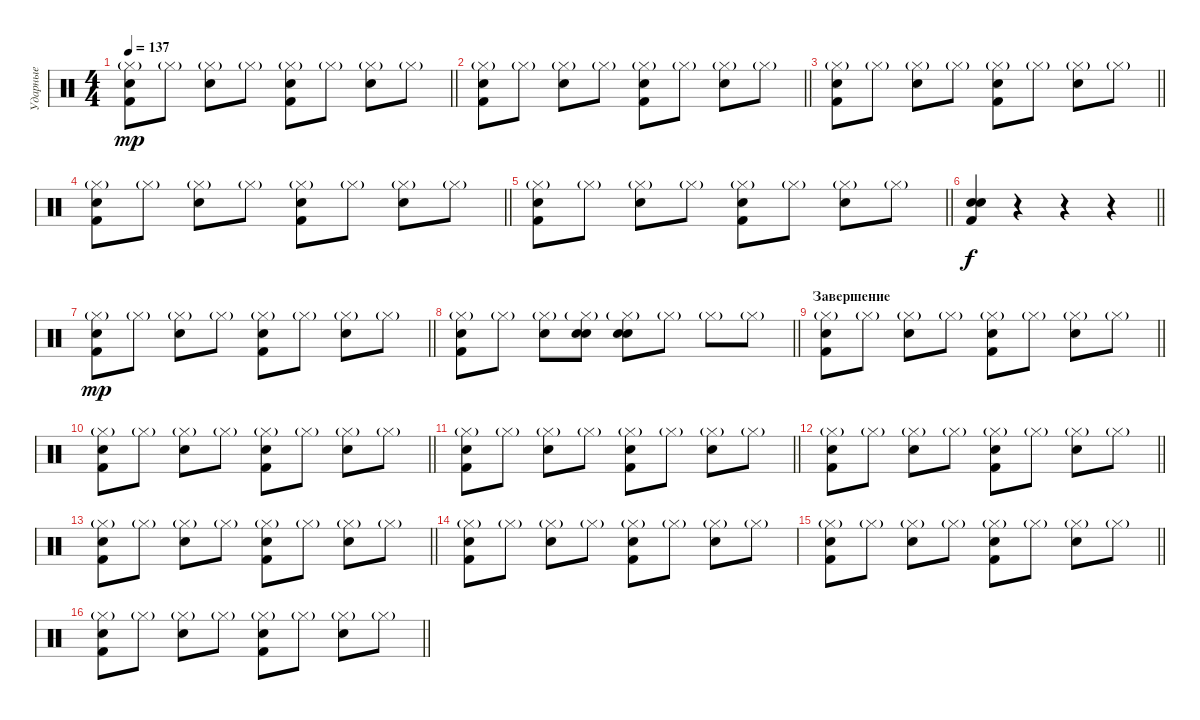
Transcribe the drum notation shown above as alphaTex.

\track ("Ударные" "Ударные") {instrument percussion}
\staff {score}
\articulation defaults
\ts (4 4)
\tempo 137
\clef neutral
\barLineRight lightlight
\ks c
("Kick (hit) 2" "Electric Snare (hit)" "Hi-Hat (closed)"{g}).8{dy mp} "Hi-Hat (closed)"{g}.8 ("Snare (hit) 2" "Hi-Hat (closed)"{g}).8 "Hi-Hat (closed)"{g}.8 ("Kick (hit) 2" "Electric Snare (hit)" "Hi-Hat (closed)"{g}).8 "Hi-Hat (closed)"{g}.8 ("Snare (hit) 2" "Hi-Hat (closed)"{g}).8 "Hi-Hat (closed)"{g}.8 |
\barLineRight lightlight
("Kick (hit) 2" "Electric Snare (hit)" "Hi-Hat (closed)"{g}).8 "Hi-Hat (closed)"{g}.8 ("Snare (hit) 2" "Hi-Hat (closed)"{g}).8 "Hi-Hat (closed)"{g}.8 ("Kick (hit) 2" "Electric Snare (hit)" "Hi-Hat (closed)"{g}).8 "Hi-Hat (closed)"{g}.8 ("Snare (hit) 2" "Hi-Hat (closed)"{g}).8 "Hi-Hat (closed)"{g}.8 |
\barLineRight lightlight
("Kick (hit) 2" "Electric Snare (hit)" "Hi-Hat (closed)"{g}).8 "Hi-Hat (closed)"{g}.8 ("Snare (hit) 2" "Hi-Hat (closed)"{g}).8 "Hi-Hat (closed)"{g}.8 ("Kick (hit) 2" "Electric Snare (hit)" "Hi-Hat (closed)"{g}).8 "Hi-Hat (closed)"{g}.8 ("Snare (hit) 2" "Hi-Hat (closed)"{g}).8 "Hi-Hat (closed)"{g}.8 |
\barLineRight lightlight
("Kick (hit) 2" "Electric Snare (hit)" "Hi-Hat (closed)"{g}).8 "Hi-Hat (closed)"{g}.8 ("Snare (hit) 2" "Hi-Hat (closed)"{g}).8 "Hi-Hat (closed)"{g}.8 ("Kick (hit) 2" "Electric Snare (hit)" "Hi-Hat (closed)"{g}).8 "Hi-Hat (closed)"{g}.8 ("Snare (hit) 2" "Hi-Hat (closed)"{g}).8 "Hi-Hat (closed)"{g}.8 |
\barLineRight lightlight
("Kick (hit) 2" "Electric Snare (hit)" "Hi-Hat (closed)"{g}).8 "Hi-Hat (closed)"{g}.8 ("Snare (hit) 2" "Hi-Hat (closed)"{g}).8 "Hi-Hat (closed)"{g}.8 ("Kick (hit) 2" "Electric Snare (hit)" "Hi-Hat (closed)"{g}).8 "Hi-Hat (closed)"{g}.8 ("Snare (hit) 2" "Hi-Hat (closed)"{g}).8 "Hi-Hat (closed)"{g}.8 |
\barLineRight lightlight
("Snare (hit) 2" "Electric Snare (hit)" "Kick (hit) 2").4{dy f} r.4 r.4 r.4 |
\barLineRight lightlight
("Kick (hit) 2" "Electric Snare (hit)" "Hi-Hat (closed)"{g}).8{dy mp} "Hi-Hat (closed)"{g}.8 ("Snare (hit) 2" "Hi-Hat (closed)"{g}).8 "Hi-Hat (closed)"{g}.8 ("Kick (hit) 2" "Electric Snare (hit)" "Hi-Hat (closed)"{g}).8 "Hi-Hat (closed)"{g}.8 ("Snare (hit) 2" "Hi-Hat (closed)"{g}).8 "Hi-Hat (closed)"{g}.8 |
\barLineRight lightlight
("Kick (hit) 2" "Electric Snare (hit)" "Hi-Hat (closed)"{g}).8 "Hi-Hat (closed)"{g}.8 ("Snare (hit) 2" "Hi-Hat (closed)"{g}).8 ("Snare (hit) 2" "Electric Snare (hit)" "Hi-Hat (closed)"{g}).8 ("Snare (hit) 2" "Electric Snare (hit)" "Hi-Hat (closed)"{g}).8 "Hi-Hat (closed)"{g}.8 "Hi-Hat (closed)"{g}.8 "Hi-Hat (closed)"{g}.8 |
\section ("" "Завершение")
\barLineRight lightlight
("Kick (hit) 2" "Electric Snare (hit)" "Hi-Hat (closed)"{g}).8 "Hi-Hat (closed)"{g}.8 ("Snare (hit) 2" "Hi-Hat (closed)"{g}).8 "Hi-Hat (closed)"{g}.8 ("Kick (hit) 2" "Electric Snare (hit)" "Hi-Hat (closed)"{g}).8 "Hi-Hat (closed)"{g}.8 ("Snare (hit) 2" "Hi-Hat (closed)"{g}).8 "Hi-Hat (closed)"{g}.8 |
\barLineRight lightlight
("Kick (hit) 2" "Electric Snare (hit)" "Hi-Hat (closed)"{g}).8 "Hi-Hat (closed)"{g}.8 ("Snare (hit) 2" "Hi-Hat (closed)"{g}).8 "Hi-Hat (closed)"{g}.8 ("Kick (hit) 2" "Electric Snare (hit)" "Hi-Hat (closed)"{g}).8 "Hi-Hat (closed)"{g}.8 ("Snare (hit) 2" "Hi-Hat (closed)"{g}).8 "Hi-Hat (closed)"{g}.8 |
\barLineRight lightlight
("Kick (hit) 2" "Electric Snare (hit)" "Hi-Hat (closed)"{g}).8 "Hi-Hat (closed)"{g}.8 ("Snare (hit) 2" "Hi-Hat (closed)"{g}).8 "Hi-Hat (closed)"{g}.8 ("Kick (hit) 2" "Electric Snare (hit)" "Hi-Hat (closed)"{g}).8 "Hi-Hat (closed)"{g}.8 ("Snare (hit) 2" "Hi-Hat (closed)"{g}).8 "Hi-Hat (closed)"{g}.8 |
\barLineRight lightlight
("Kick (hit) 2" "Electric Snare (hit)" "Hi-Hat (closed)"{g}).8 "Hi-Hat (closed)"{g}.8 ("Snare (hit) 2" "Hi-Hat (closed)"{g}).8 "Hi-Hat (closed)"{g}.8 ("Kick (hit) 2" "Electric Snare (hit)" "Hi-Hat (closed)"{g}).8 "Hi-Hat (closed)"{g}.8 ("Snare (hit) 2" "Hi-Hat (closed)"{g}).8 "Hi-Hat (closed)"{g}.8 |
\barLineRight lightlight
("Kick (hit) 2" "Electric Snare (hit)" "Hi-Hat (closed)"{g}).8 "Hi-Hat (closed)"{g}.8 ("Snare (hit) 2" "Hi-Hat (closed)"{g}).8 "Hi-Hat (closed)"{g}.8 ("Kick (hit) 2" "Electric Snare (hit)" "Hi-Hat (closed)"{g}).8 "Hi-Hat (closed)"{g}.8 ("Snare (hit) 2" "Hi-Hat (closed)"{g}).8 "Hi-Hat (closed)"{g}.8 |
("Kick (hit) 2" "Electric Snare (hit)" "Hi-Hat (closed)"{g}).8 "Hi-Hat (closed)"{g}.8 ("Snare (hit) 2" "Hi-Hat (closed)"{g}).8 "Hi-Hat (closed)"{g}.8 ("Kick (hit) 2" "Electric Snare (hit)" "Hi-Hat (closed)"{g}).8 "Hi-Hat (closed)"{g}.8 ("Snare (hit) 2" "Hi-Hat (closed)"{g}).8 "Hi-Hat (closed)"{g}.8 |
\barLineRight lightlight
("Kick (hit) 2" "Electric Snare (hit)" "Hi-Hat (closed)"{g}).8 "Hi-Hat (closed)"{g}.8 ("Snare (hit) 2" "Hi-Hat (closed)"{g}).8 "Hi-Hat (closed)"{g}.8 ("Kick (hit) 2" "Electric Snare (hit)" "Hi-Hat (closed)"{g}).8 "Hi-Hat (closed)"{g}.8 ("Snare (hit) 2" "Hi-Hat (closed)"{g}).8 "Hi-Hat (closed)"{g}.8 |
\barLineRight lightlight
("Kick (hit) 2" "Electric Snare (hit)" "Hi-Hat (closed)"{g}).8 "Hi-Hat (closed)"{g}.8 ("Snare (hit) 2" "Hi-Hat (closed)"{g}).8 "Hi-Hat (closed)"{g}.8 ("Kick (hit) 2" "Electric Snare (hit)" "Hi-Hat (closed)"{g}).8 "Hi-Hat (closed)"{g}.8 ("Snare (hit) 2" "Hi-Hat (closed)"{g}).8 "Hi-Hat (closed)"{g}.8
